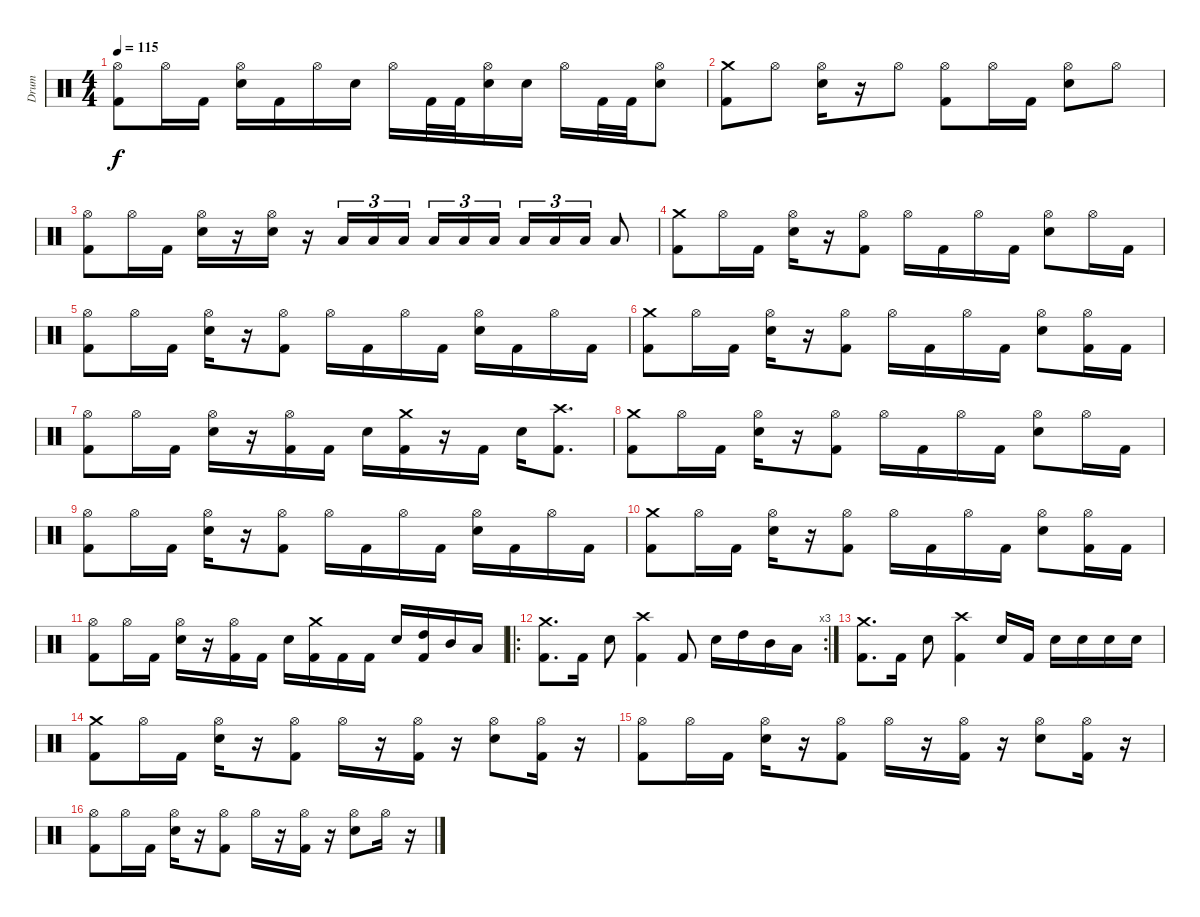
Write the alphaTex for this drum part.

\track ("Drum" "Drum") {instrument percussion}
\staff {score}
\articulation defaults
\ts (4 4)
\tempo 115
\clef neutral
\ks c
("Hi-Hat (open)" "Kick (hit) 2").8{dy f} "Hi-Hat (open)".16 "Kick (hit) 2".16 ("Hi-Hat (open)" "Electric Snare (hit)").16 "Kick (hit) 2".16 "Hi-Hat (open)".16 "Electric Snare (hit)".16 "Hi-Hat (open)".16 "Kick (hit) 2".32 "Kick (hit) 2".32 ("Hi-Hat (open)" "Electric Snare (hit)").16 "Electric Snare (hit)".16 "Hi-Hat (open)".16 "Kick (hit) 2".32 "Kick (hit) 2".32 ("Hi-Hat (open)" "Electric Snare (hit)").8 |
("Crash medium (hit)" "Kick (hit) 2").8 "Hi-Hat (open)".8 ("Hi-Hat (open)" "Electric Snare (hit)").16 r.16 "Hi-Hat (open)".8 ("Hi-Hat (open)" "Kick (hit) 2").8 "Hi-Hat (open)".16 "Kick (hit) 2".16 ("Hi-Hat (open)" "Electric Snare (hit)").8 "Hi-Hat (open)".8 |
("Hi-Hat (open)" "Kick (hit) 2").8 "Hi-Hat (open)".16 "Kick (hit) 2".16 ("Hi-Hat (open)" "Electric Snare (hit)").16 r.16 ("Hi-Hat (open)" "Electric Snare (hit)").16 r.16 "Low Tom (hit)".16{tu (3 2)} "Low Tom (hit)".16{tu (3 2)} "Low Tom (hit)".16{tu (3 2)} "Low Tom (hit)".16{tu (3 2)} "Low Tom (hit)".16{tu (3 2)} "Low Tom (hit)".16{tu (3 2)} "Low Tom (hit)".16{tu (3 2)} "Low Tom (hit)".16{tu (3 2)} "Low Tom (hit)".16{tu (3 2)} "Low Tom (hit)".8 |
("Crash medium (hit)" "Kick (hit) 2").8 "Hi-Hat (open)".16 "Kick (hit) 2".16 ("Hi-Hat (open)" "Electric Snare (hit)").16 r.16 ("Hi-Hat (open)" "Kick (hit) 2").8 "Hi-Hat (open)".16 "Kick (hit) 2".16 "Hi-Hat (open)".16 "Kick (hit) 2".16 ("Hi-Hat (open)" "Electric Snare (hit)").8 "Hi-Hat (open)".16 "Kick (hit) 2".16 |
("Hi-Hat (open)" "Kick (hit) 2").8 "Hi-Hat (open)".16 "Kick (hit) 2".16 ("Hi-Hat (open)" "Electric Snare (hit)").16 r.16 ("Hi-Hat (open)" "Kick (hit) 2").8 "Hi-Hat (open)".16 "Kick (hit) 2".16 "Hi-Hat (open)".16 "Kick (hit) 2".16 ("Hi-Hat (open)" "Electric Snare (hit)").16 "Kick (hit) 2".16 "Hi-Hat (open)".16 "Kick (hit) 2".16 |
("Crash medium (hit)" "Kick (hit) 2").8 "Hi-Hat (open)".16 "Kick (hit) 2".16 ("Hi-Hat (open)" "Electric Snare (hit)").16 r.16 ("Hi-Hat (open)" "Kick (hit) 2").8 "Hi-Hat (open)".16 "Kick (hit) 2".16 "Hi-Hat (open)".16 "Kick (hit) 2".16 ("Hi-Hat (open)" "Electric Snare (hit)").8 ("Hi-Hat (open)" "Kick (hit) 2").16 "Kick (hit) 2".16 |
("Hi-Hat (open)" "Kick (hit) 2").8 "Hi-Hat (open)".16 "Kick (hit) 2".16 ("Hi-Hat (open)" "Electric Snare (hit)").16 r.16 ("Hi-Hat (open)" "Kick (hit) 2").16 "Kick (hit) 2".16 "Electric Snare (hit)".16 ("Crash medium (hit)" "Kick (hit) 2").16 r.16 "Kick (hit) 2".16 "Electric Snare (hit)".16 ("Crash high (hit)" "Kick (hit) 2").8{d} |
("Crash medium (hit)" "Kick (hit) 2").8 "Hi-Hat (open)".16 "Kick (hit) 2".16 ("Hi-Hat (open)" "Electric Snare (hit)").16 r.16 ("Hi-Hat (open)" "Kick (hit) 2").8 "Hi-Hat (open)".16 "Kick (hit) 2".16 "Hi-Hat (open)".16 "Kick (hit) 2".16 ("Hi-Hat (open)" "Electric Snare (hit)").8 "Hi-Hat (open)".16 "Kick (hit) 2".16 |
("Hi-Hat (open)" "Kick (hit) 2").8 "Hi-Hat (open)".16 "Kick (hit) 2".16 ("Hi-Hat (open)" "Electric Snare (hit)").16 r.16 ("Hi-Hat (open)" "Kick (hit) 2").8 "Hi-Hat (open)".16 "Kick (hit) 2".16 "Hi-Hat (open)".16 "Kick (hit) 2".16 ("Hi-Hat (open)" "Electric Snare (hit)").16 "Kick (hit) 2".16 "Hi-Hat (open)".16 "Kick (hit) 2".16 |
("Crash medium (hit)" "Kick (hit) 2").8 "Hi-Hat (open)".16 "Kick (hit) 2".16 ("Hi-Hat (open)" "Electric Snare (hit)").16 r.16 ("Hi-Hat (open)" "Kick (hit) 2").8 "Hi-Hat (open)".16 "Kick (hit) 2".16 "Hi-Hat (open)".16 "Kick (hit) 2".16 ("Hi-Hat (open)" "Electric Snare (hit)").8 ("Hi-Hat (open)" "Kick (hit) 2").16 "Kick (hit) 2".16 |
("Hi-Hat (open)" "Kick (hit) 2").8 "Hi-Hat (open)".16 "Kick (hit) 2".16 ("Hi-Hat (open)" "Electric Snare (hit)").16 r.16 ("Hi-Hat (open)" "Kick (hit) 2").16 "Kick (hit) 2".16 "Electric Snare (hit)".16 ("Crash medium (hit)" "Kick (hit) 2").16 "Kick (hit) 2".16 "Kick (hit) 2".16 "Electric Snare (hit)".16 ("High Tom (hit)" "Kick (hit) 2").16 "Mid Tom (hit)".16 "Low Tom (hit)".16 |
\ro
\rc 3
("Crash medium (hit)" "Kick (hit) 2").8{d} "Kick (hit) 2".16 "Snare (hit) 2".8 ("Crash high (hit)" "Kick (hit) 2").4 "Kick (hit) 2".8 "Electric Snare (hit)".16 "High Tom (hit)".16 "Mid Tom (hit)".16 "Low Tom (hit)".16 |
("Crash medium (hit)" "Kick (hit) 2").8{d} "Kick (hit) 2".16 "Snare (hit) 2".8 ("Crash high (hit)" "Kick (hit) 2").4 "Electric Snare (hit)".16 "Kick (hit) 2".16 "Electric Snare (hit)".16 "Electric Snare (hit)".16 "Electric Snare (hit)".16 "Electric Snare (hit)".16 |
("Crash medium (hit)" "Kick (hit) 2").8 "Hi-Hat (open)".16 "Kick (hit) 2".16 ("Hi-Hat (open)" "Electric Snare (hit)").16 r.16 ("Hi-Hat (open)" "Kick (hit) 2").8 "Hi-Hat (open)".16 r.16 ("Hi-Hat (open)" "Kick (hit) 2").16 r.16 ("Hi-Hat (open)" "Electric Snare (hit)").8 ("Hi-Hat (open)" "Kick (hit) 2").16 r.16 |
("Hi-Hat (open)" "Kick (hit) 2").8 "Hi-Hat (open)".16 "Kick (hit) 2".16 ("Hi-Hat (open)" "Electric Snare (hit)").16 r.16 ("Hi-Hat (open)" "Kick (hit) 2").8 "Hi-Hat (open)".16 r.16 ("Hi-Hat (open)" "Kick (hit) 2").16 r.16 ("Hi-Hat (open)" "Electric Snare (hit)").8 ("Hi-Hat (open)" "Kick (hit) 2").16 r.16 |
("Hi-Hat (open)" "Kick (hit) 2").8 "Hi-Hat (open)".16 "Kick (hit) 2".16 ("Hi-Hat (open)" "Electric Snare (hit)").16 r.16 ("Hi-Hat (open)" "Kick (hit) 2").8 "Hi-Hat (open)".16 r.16 ("Hi-Hat (open)" "Kick (hit) 2").16 r.16 ("Hi-Hat (open)" "Electric Snare (hit)").8 "Hi-Hat (open)".16 r.16
